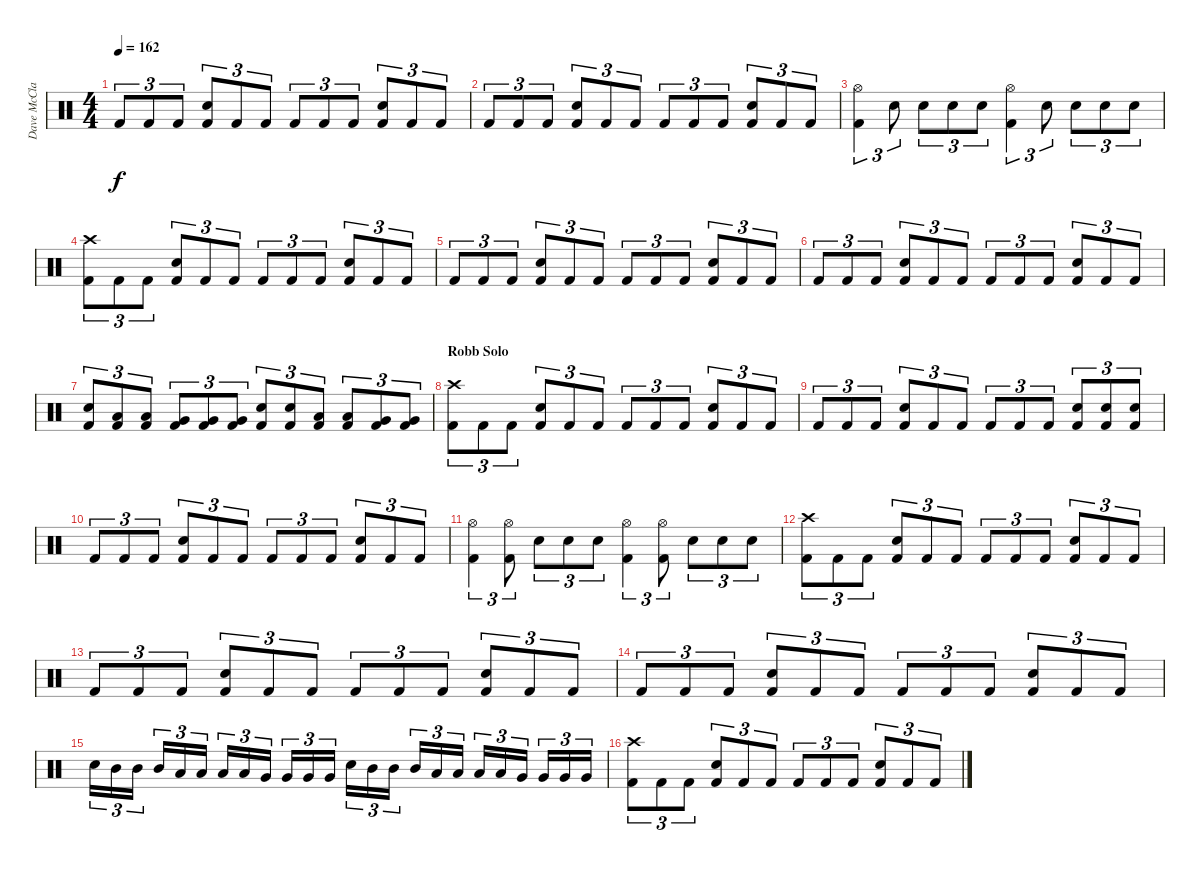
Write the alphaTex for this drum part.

\track ("Dave McClain" "Dave McCla") {instrument percussion}
\staff {score}
\articulation defaults
\ts (4 4)
\tempo 162
\clef neutral
\ks c "Kick (hit) 2".8{tu (3 2) dy f} "Kick (hit) 2".8{tu (3 2)} "Kick (hit) 2".8{tu (3 2)}
("Electric Snare (hit)" "Kick (hit) 2").8{tu (3 2)} "Kick (hit) 2".8{tu (3 2)} "Kick (hit) 2".8{tu (3 2)} "Kick (hit) 2".8{tu (3 2)} "Kick (hit) 2".8{tu (3 2)} "Kick (hit) 2".8{tu (3 2)} ("Electric Snare (hit)" "Kick (hit) 2").8{tu (3 2)} "Kick (hit) 2".8{tu (3 2)} "Kick (hit) 2".8{tu (3 2)} |
"Kick (hit) 2".8{tu (3 2)} "Kick (hit) 2".8{tu (3 2)} "Kick (hit) 2".8{tu (3 2)} ("Electric Snare (hit)" "Kick (hit) 2").8{tu (3 2)} "Kick (hit) 2".8{tu (3 2)} "Kick (hit) 2".8{tu (3 2)} "Kick (hit) 2".8{tu (3 2)} "Kick (hit) 2".8{tu (3 2)} "Kick (hit) 2".8{tu (3 2)} ("Electric Snare (hit)" "Kick (hit) 2").8{tu (3 2)} "Kick (hit) 2".8{tu (3 2)} "Kick (hit) 2".8{tu (3 2)} |
("Hi-Hat (open)" "Kick (hit) 2").4{tu (3 2)} "Electric Snare (hit)".8{tu (3 2)} "Electric Snare (hit)".8{tu (3 2)} "Electric Snare (hit)".8{tu (3 2)} "Electric Snare (hit)".8{tu (3 2)} ("Hi-Hat (open)" "Kick (hit) 2").4{tu (3 2)} "Electric Snare (hit)".8{tu (3 2)} "Electric Snare (hit)".8{tu (3 2)} "Electric Snare (hit)".8{tu (3 2)} "Electric Snare (hit)".8{tu (3 2)} |
("Crash high (hit)" "Kick (hit) 2").8{tu (3 2)} "Kick (hit) 2".8{tu (3 2)} "Kick (hit) 2".8{tu (3 2)} ("Electric Snare (hit)" "Kick (hit) 2").8{tu (3 2)} "Kick (hit) 2".8{tu (3 2)} "Kick (hit) 2".8{tu (3 2)} "Kick (hit) 2".8{tu (3 2)} "Kick (hit) 2".8{tu (3 2)} "Kick (hit) 2".8{tu (3 2)} ("Electric Snare (hit)" "Kick (hit) 2").8{tu (3 2)} "Kick (hit) 2".8{tu (3 2)} "Kick (hit) 2".8{tu (3 2)} |
"Kick (hit) 2".8{tu (3 2)} "Kick (hit) 2".8{tu (3 2)} "Kick (hit) 2".8{tu (3 2)} ("Electric Snare (hit)" "Kick (hit) 2").8{tu (3 2)} "Kick (hit) 2".8{tu (3 2)} "Kick (hit) 2".8{tu (3 2)} "Kick (hit) 2".8{tu (3 2)} "Kick (hit) 2".8{tu (3 2)} "Kick (hit) 2".8{tu (3 2)} ("Electric Snare (hit)" "Kick (hit) 2").8{tu (3 2)} "Kick (hit) 2".8{tu (3 2)} "Kick (hit) 2".8{tu (3 2)} |
"Kick (hit) 2".8{tu (3 2)} "Kick (hit) 2".8{tu (3 2)} "Kick (hit) 2".8{tu (3 2)} ("Electric Snare (hit)" "Kick (hit) 2").8{tu (3 2)} "Kick (hit) 2".8{tu (3 2)} "Kick (hit) 2".8{tu (3 2)} "Kick (hit) 2".8{tu (3 2)} "Kick (hit) 2".8{tu (3 2)} "Kick (hit) 2".8{tu (3 2)} ("Electric Snare (hit)" "Kick (hit) 2").8{tu (3 2)} "Kick (hit) 2".8{tu (3 2)} "Kick (hit) 2".8{tu (3 2)} |
("Electric Snare (hit)" "Kick (hit) 2").8{tu (3 2)} ("Low Tom (hit)" "Kick (hit) 2").8{tu (3 2)} ("Low Tom (hit)" "Kick (hit) 2").8{tu (3 2)} ("Very Low Tom (hit)" "Kick (hit) 2").8{tu (3 2)} ("Very Low Tom (hit)" "Kick (hit) 2").8{tu (3 2)} ("Very Low Tom (hit)" "Kick (hit) 2").8{tu (3 2)} ("Electric Snare (hit)" "Kick (hit) 2").8{tu (3 2)} ("Electric Snare (hit)" "Kick (hit) 2").8{tu (3 2)} ("Low Tom (hit)" "Kick (hit) 2").8{tu (3 2)} ("Low Tom (hit)" "Kick (hit) 2").8{tu (3 2)} ("Very Low Tom (hit)" "Kick (hit) 2").8{tu (3 2)} ("Very Low Tom (hit)" "Kick (hit) 2").8{tu (3 2)} |
\section ("" "Robb Solo")
("Crash high (hit)" "Kick (hit) 2").8{tu (3 2)} "Kick (hit) 2".8{tu (3 2)} "Kick (hit) 2".8{tu (3 2)} ("Electric Snare (hit)" "Kick (hit) 2").8{tu (3 2)} "Kick (hit) 2".8{tu (3 2)} "Kick (hit) 2".8{tu (3 2)} "Kick (hit) 2".8{tu (3 2)} "Kick (hit) 2".8{tu (3 2)} "Kick (hit) 2".8{tu (3 2)} ("Electric Snare (hit)" "Kick (hit) 2").8{tu (3 2)} "Kick (hit) 2".8{tu (3 2)} "Kick (hit) 2".8{tu (3 2)} |
"Kick (hit) 2".8{tu (3 2)} "Kick (hit) 2".8{tu (3 2)} "Kick (hit) 2".8{tu (3 2)} ("Electric Snare (hit)" "Kick (hit) 2").8{tu (3 2)} "Kick (hit) 2".8{tu (3 2)} "Kick (hit) 2".8{tu (3 2)} "Kick (hit) 2".8{tu (3 2)} "Kick (hit) 2".8{tu (3 2)} "Kick (hit) 2".8{tu (3 2)} ("Electric Snare (hit)" "Kick (hit) 2").8{tu (3 2)} ("Electric Snare (hit)" "Kick (hit) 2").8{tu (3 2)} ("Electric Snare (hit)" "Kick (hit) 2").8{tu (3 2)} |
"Kick (hit) 2".8{tu (3 2)} "Kick (hit) 2".8{tu (3 2)} "Kick (hit) 2".8{tu (3 2)} ("Electric Snare (hit)" "Kick (hit) 2").8{tu (3 2)} "Kick (hit) 2".8{tu (3 2)} "Kick (hit) 2".8{tu (3 2)} "Kick (hit) 2".8{tu (3 2)} "Kick (hit) 2".8{tu (3 2)} "Kick (hit) 2".8{tu (3 2)} ("Electric Snare (hit)" "Kick (hit) 2").8{tu (3 2)} "Kick (hit) 2".8{tu (3 2)} "Kick (hit) 2".8{tu (3 2)} |
("Hi-Hat (open)" "Kick (hit) 2").4{tu (3 2)} ("Hi-Hat (open)" "Kick (hit) 2").8{tu (3 2)} "Electric Snare (hit)".8{tu (3 2)} "Electric Snare (hit)".8{tu (3 2)} "Electric Snare (hit)".8{tu (3 2)} ("Hi-Hat (open)" "Kick (hit) 2").4{tu (3 2)} ("Hi-Hat (open)" "Kick (hit) 2").8{tu (3 2)} "Electric Snare (hit)".8{tu (3 2)} "Electric Snare (hit)".8{tu (3 2)} "Electric Snare (hit)".8{tu (3 2)} |
("Crash high (hit)" "Kick (hit) 2").8{tu (3 2)} "Kick (hit) 2".8{tu (3 2)} "Kick (hit) 2".8{tu (3 2)} ("Electric Snare (hit)" "Kick (hit) 2").8{tu (3 2)} "Kick (hit) 2".8{tu (3 2)} "Kick (hit) 2".8{tu (3 2)} "Kick (hit) 2".8{tu (3 2)} "Kick (hit) 2".8{tu (3 2)} "Kick (hit) 2".8{tu (3 2)} ("Electric Snare (hit)" "Kick (hit) 2").8{tu (3 2)} "Kick (hit) 2".8{tu (3 2)} "Kick (hit) 2".8{tu (3 2)} |
"Kick (hit) 2".8{tu (3 2)} "Kick (hit) 2".8{tu (3 2)} "Kick (hit) 2".8{tu (3 2)} ("Electric Snare (hit)" "Kick (hit) 2").8{tu (3 2)} "Kick (hit) 2".8{tu (3 2)} "Kick (hit) 2".8{tu (3 2)} "Kick (hit) 2".8{tu (3 2)} "Kick (hit) 2".8{tu (3 2)} "Kick (hit) 2".8{tu (3 2)} ("Electric Snare (hit)" "Kick (hit) 2").8{tu (3 2)} "Kick (hit) 2".8{tu (3 2)} "Kick (hit) 2".8{tu (3 2)} |
"Kick (hit) 2".8{tu (3 2)} "Kick (hit) 2".8{tu (3 2)} "Kick (hit) 2".8{tu (3 2)} ("Electric Snare (hit)" "Kick (hit) 2").8{tu (3 2)} "Kick (hit) 2".8{tu (3 2)} "Kick (hit) 2".8{tu (3 2)} "Kick (hit) 2".8{tu (3 2)} "Kick (hit) 2".8{tu (3 2)} "Kick (hit) 2".8{tu (3 2)} ("Electric Snare (hit)" "Kick (hit) 2").8{tu (3 2)} "Kick (hit) 2".8{tu (3 2)} "Kick (hit) 2".8{tu (3 2)} |
"Electric Snare (hit)".16{tu (3 2)} "Mid Tom (hit)".16{tu (3 2)} "Mid Tom (hit)".16{tu (3 2)} "Mid Tom (hit)".16{tu (3 2)} "Low Tom (hit)".16{tu (3 2)} "Low Tom (hit)".16{tu (3 2)} "Low Tom (hit)".16{tu (3 2)} "Low Tom (hit)".16{tu (3 2)} "Very Low Tom (hit)".16{tu (3 2)} "Very Low Tom (hit)".16{tu (3 2)} "Very Low Tom (hit)".16{tu (3 2)} "Very Low Tom (hit)".16{tu (3 2)} "Electric Snare (hit)".16{tu (3 2)} "Mid Tom (hit)".16{tu (3 2)} "Mid Tom (hit)".16{tu (3 2)} "Mid Tom (hit)".16{tu (3 2)} "Low Tom (hit)".16{tu (3 2)} "Low Tom (hit)".16{tu (3 2)} "Low Tom (hit)".16{tu (3 2)} "Low Tom (hit)".16{tu (3 2)} "Very Low Tom (hit)".16{tu (3 2)} "Very Low Tom (hit)".16{tu (3 2)} "Very Low Tom (hit)".16{tu (3 2)} "Very Low Tom (hit)".16{tu (3 2)} |
("Crash high (hit)" "Kick (hit) 2").8{tu (3 2)} "Kick (hit) 2".8{tu (3 2)} "Kick (hit) 2".8{tu (3 2)} ("Electric Snare (hit)" "Kick (hit) 2").8{tu (3 2)} "Kick (hit) 2".8{tu (3 2)} "Kick (hit) 2".8{tu (3 2)} "Kick (hit) 2".8{tu (3 2)} "Kick (hit) 2".8{tu (3 2)} "Kick (hit) 2".8{tu (3 2)} ("Electric Snare (hit)" "Kick (hit) 2").8{tu (3 2)} "Kick (hit) 2".8{tu (3 2)} "Kick (hit) 2".8{tu (3 2)}
